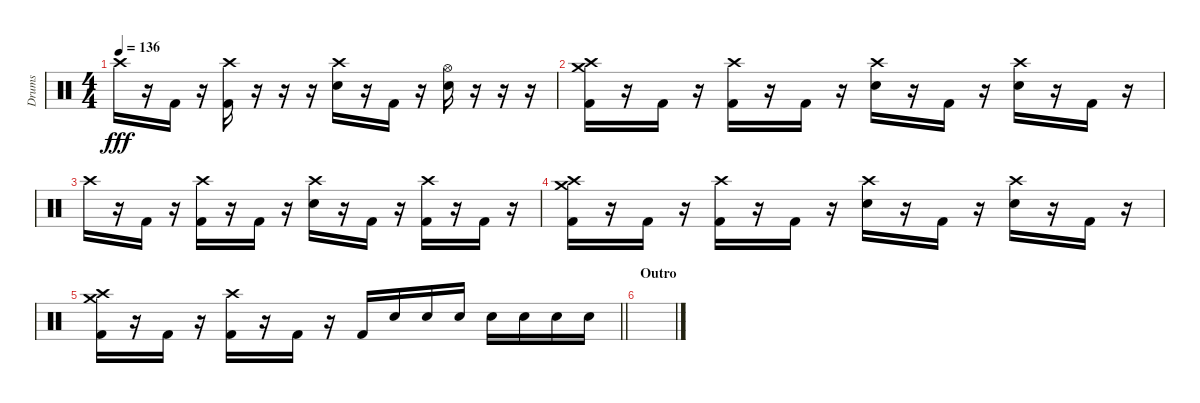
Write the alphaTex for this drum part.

\track ("Drums" "Drums") {instrument percussion}
\staff {score}
\articulation defaults
\ts (4 4)
\tempo 136
\clef neutral
\ks c "Crash high (hit)".16{dy fff}
r.16 "Kick (hit) 2".16 r.16 ("Crash high (hit)" "Kick (hit) 2").16 r.16 r.16 r.16 ("Crash high (hit)" "Electric Snare (hit)").16 r.16 "Kick (hit) 2".16 r.16 ("Hi-Hat (open)" "Electric Snare (hit)").16 r.16 r.16 r.16 |
("Crash medium (hit)" "Crash high (hit)" "Kick (hit) 2").16 r.16 "Kick (hit) 2".16 r.16 ("Crash high (hit)" "Kick (hit) 2").16 r.16 "Kick (hit) 2".16 r.16 ("Crash high (hit)" "Electric Snare (hit)").16 r.16 "Kick (hit) 2".16 r.16 ("Crash high (hit)" "Electric Snare (hit)").16 r.16 "Kick (hit) 2".16 r.16 |
"Crash high (hit)".16 r.16 "Kick (hit) 2".16 r.16 ("Crash high (hit)" "Kick (hit) 2").16 r.16 "Kick (hit) 2".16 r.16 ("Crash high (hit)" "Electric Snare (hit)").16 r.16 "Kick (hit) 2".16 r.16 ("Crash high (hit)" "Kick (hit) 2").16 r.16 "Kick (hit) 2".16 r.16 |
("Crash medium (hit)" "Crash high (hit)" "Kick (hit) 2").16 r.16 "Kick (hit) 2".16 r.16 ("Crash high (hit)" "Kick (hit) 2").16 r.16 "Kick (hit) 2".16 r.16 ("Crash high (hit)" "Electric Snare (hit)").16 r.16 "Kick (hit) 2".16 r.16 ("Crash high (hit)" "Electric Snare (hit)").16 r.16 "Kick (hit) 2".16 r.16 |
\barLineRight lightlight
("Crash medium (hit)" "Crash high (hit)" "Kick (hit) 2").16 r.16 "Kick (hit) 2".16 r.16 ("Crash high (hit)" "Kick (hit) 2").16 r.16 "Kick (hit) 2".16 r.16 "Kick (hit) 2".16 "Electric Snare (hit)".16 "Electric Snare (hit)".16 "Electric Snare (hit)".16 "Electric Snare (hit)".16 "Electric Snare (hit)".16 "Electric Snare (hit)".16 "Electric Snare (hit)".16 |
\section ("" "Outro")
